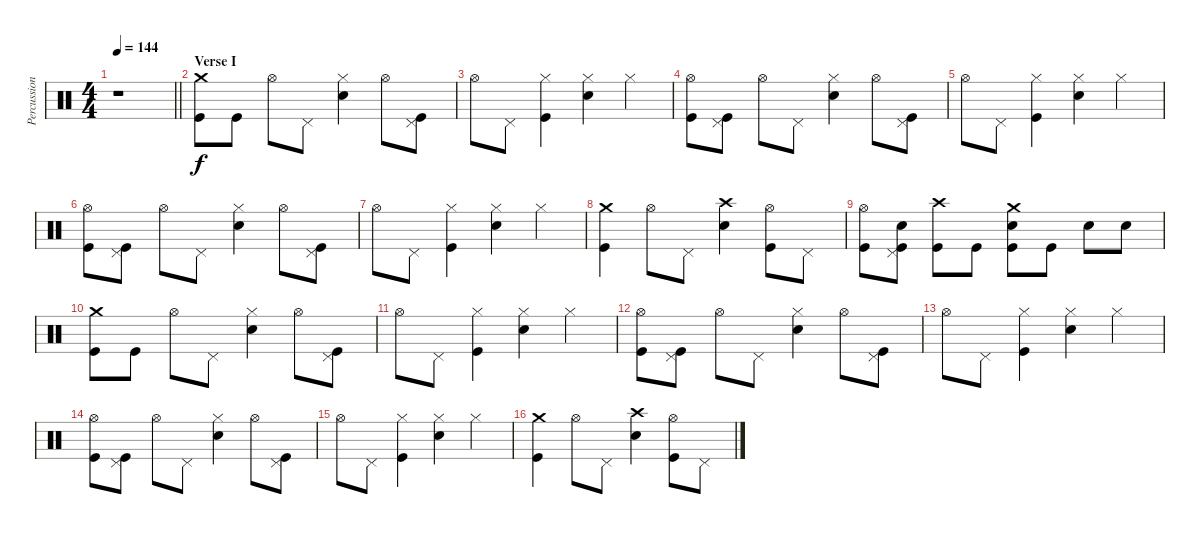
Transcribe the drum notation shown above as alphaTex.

\track ("Percussion" "Percussion") {instrument percussion}
\staff {score}
\articulation defaults
\ts (4 4)
\tempo 144
\clef neutral
\barLineRight lightlight
\ks c
r.1{dy f} |
\section ("" "Verse I")
("Crash medium (hit)" "Kick (hit)").8 "Kick (hit)".8 "Hi-Hat (open)".8 "Pedal Hi-Hat (hit)".8 ("Hi-Hat (closed)" "Electric Snare (hit)").4 "Hi-Hat (open)".8 ("Pedal Hi-Hat (hit)" "Kick (hit)").8 |
"Hi-Hat (open)".8 "Pedal Hi-Hat (hit)".8 ("Hi-Hat (closed)" "Kick (hit)").4 ("Hi-Hat (closed)" "Electric Snare (hit)").4 "Hi-Hat (closed)".4 |
("Hi-Hat (open)" "Kick (hit)").8 ("Pedal Hi-Hat (hit)" "Kick (hit)").8 "Hi-Hat (open)".8 "Pedal Hi-Hat (hit)".8 ("Hi-Hat (closed)" "Electric Snare (hit)").4 "Hi-Hat (open)".8 ("Pedal Hi-Hat (hit)" "Kick (hit)").8 |
"Hi-Hat (open)".8 "Pedal Hi-Hat (hit)".8 ("Hi-Hat (closed)" "Kick (hit)").4 ("Hi-Hat (closed)" "Electric Snare (hit)").4 "Hi-Hat (closed)".4 |
("Hi-Hat (open)" "Kick (hit)").8 ("Pedal Hi-Hat (hit)" "Kick (hit)").8 "Hi-Hat (open)".8 "Pedal Hi-Hat (hit)".8 ("Hi-Hat (closed)" "Electric Snare (hit)").4 "Hi-Hat (open)".8 ("Pedal Hi-Hat (hit)" "Kick (hit)").8 |
"Hi-Hat (open)".8 "Pedal Hi-Hat (hit)".8 ("Hi-Hat (closed)" "Kick (hit)").4 ("Hi-Hat (closed)" "Electric Snare (hit)").4 "Hi-Hat (closed)".4 |
("Crash medium (hit)" "Kick (hit)").4 "Hi-Hat (open)".8 "Pedal Hi-Hat (hit)".8 ("Crash high (hit)" "Electric Snare (hit)").4 ("Hi-Hat (open)" "Kick (hit)").8 "Pedal Hi-Hat (hit)".8 |
("Hi-Hat (open)" "Kick (hit)").8 ("Pedal Hi-Hat (hit)" "Electric Snare (hit)" "Kick (hit)").8 ("Crash high (hit)" "Kick (hit)").8 "Kick (hit)".8 ("Crash medium (hit)" "Electric Snare (hit)" "Kick (hit)").8 "Kick (hit)".8 "Electric Snare (hit)".8 "Electric Snare (hit)".8 |
("Crash medium (hit)" "Kick (hit)").8 "Kick (hit)".8 "Hi-Hat (open)".8 "Pedal Hi-Hat (hit)".8 ("Hi-Hat (closed)" "Electric Snare (hit)").4 "Hi-Hat (open)".8 ("Pedal Hi-Hat (hit)" "Kick (hit)").8 |
"Hi-Hat (open)".8 "Pedal Hi-Hat (hit)".8 ("Hi-Hat (closed)" "Kick (hit)").4 ("Hi-Hat (closed)" "Electric Snare (hit)").4 "Hi-Hat (closed)".4 |
("Hi-Hat (open)" "Kick (hit)").8 ("Pedal Hi-Hat (hit)" "Kick (hit)").8 "Hi-Hat (open)".8 "Pedal Hi-Hat (hit)".8 ("Hi-Hat (closed)" "Electric Snare (hit)").4 "Hi-Hat (open)".8 ("Pedal Hi-Hat (hit)" "Kick (hit)").8 |
"Hi-Hat (open)".8 "Pedal Hi-Hat (hit)".8 ("Hi-Hat (closed)" "Kick (hit)").4 ("Hi-Hat (closed)" "Electric Snare (hit)").4 "Hi-Hat (closed)".4 |
("Hi-Hat (open)" "Kick (hit)").8 ("Pedal Hi-Hat (hit)" "Kick (hit)").8 "Hi-Hat (open)".8 "Pedal Hi-Hat (hit)".8 ("Hi-Hat (closed)" "Electric Snare (hit)").4 "Hi-Hat (open)".8 ("Pedal Hi-Hat (hit)" "Kick (hit)").8 |
"Hi-Hat (open)".8 "Pedal Hi-Hat (hit)".8 ("Hi-Hat (closed)" "Kick (hit)").4 ("Hi-Hat (closed)" "Electric Snare (hit)").4 "Hi-Hat (closed)".4 |
("Crash medium (hit)" "Kick (hit)").4 "Hi-Hat (open)".8 "Pedal Hi-Hat (hit)".8 ("Crash high (hit)" "Electric Snare (hit)").4 ("Hi-Hat (open)" "Kick (hit)").8 "Pedal Hi-Hat (hit)".8
